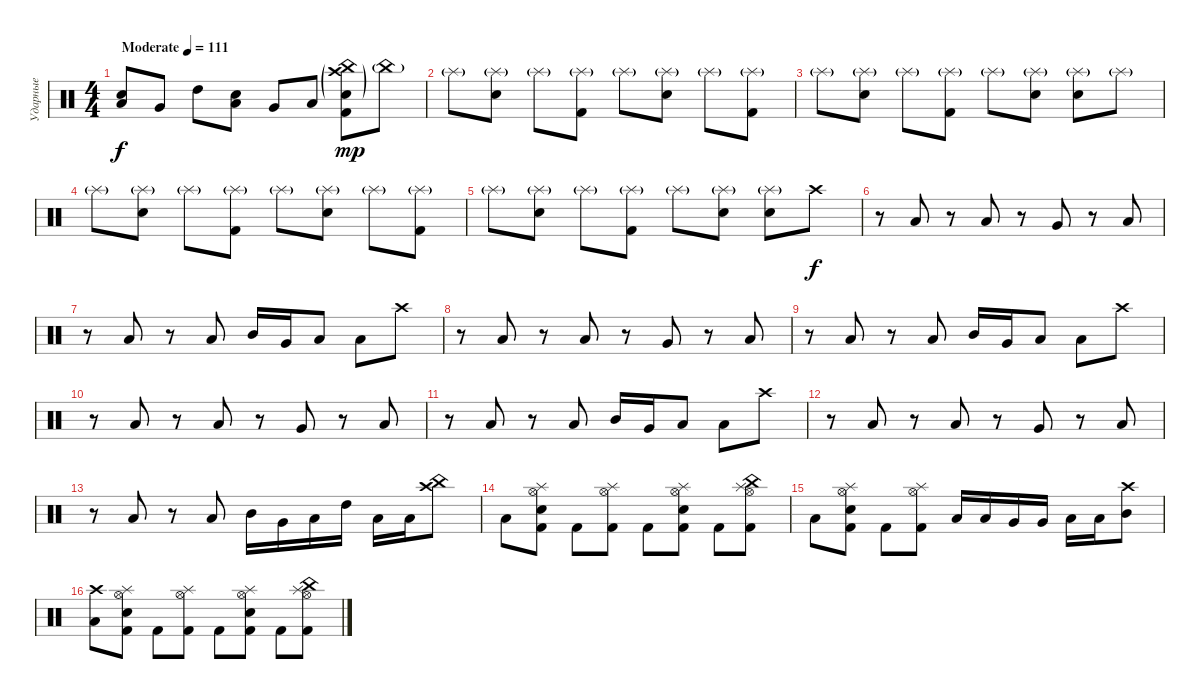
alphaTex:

\track ("Ударные" "Ударные") {instrument percussion}
\staff {score}
\articulation defaults
\ts (4 4)
\tempo (111 "Moderate")
\clef neutral
\ks c
("Low Floor Tom (hit)" "Electric Snare (hit)").8{dy f} "Very Low Tom (hit)".8 "High Tom (hit)".8 ("Low Floor Tom (hit)" "Electric Snare (hit)").8 "Very Low Tom (hit)".8 "Low Floor Tom (hit)".8 ("Kick (hit) 2" "China (hit)"{g} "Crash high (hit)"{g} "Electric Snare (hit)"{g}).8{dy mp} "China (hit)"{g}.8 |
"Splash (hit)"{g}.8 ("Electric Snare (hit)" "Splash (hit)"{g}).8 "Splash (hit)"{g}.8 ("Splash (hit)"{g} "Kick (hit) 2").8 "Splash (hit)"{g}.8 ("Electric Snare (hit)" "Splash (hit)"{g}).8 "Splash (hit)"{g}.8 ("Splash (hit)"{g} "Kick (hit) 2").8 |
"Splash (hit)"{g}.8 ("Electric Snare (hit)" "Splash (hit)"{g}).8 "Splash (hit)"{g}.8 ("Splash (hit)"{g} "Kick (hit) 2").8 "Splash (hit)"{g}.8 ("Electric Snare (hit)" "Splash (hit)"{g}).8 ("Snare (hit) 2" "Splash (hit)"{g}).8 "Splash (hit)"{g}.8 |
"Splash (hit)"{g}.8 ("Electric Snare (hit)" "Splash (hit)"{g}).8 "Splash (hit)"{g}.8 ("Splash (hit)"{g} "Kick (hit) 2").8 "Splash (hit)"{g}.8 ("Electric Snare (hit)" "Splash (hit)"{g}).8 "Splash (hit)"{g}.8 ("Splash (hit)"{g} "Kick (hit) 2").8 |
"Splash (hit)"{g}.8 ("Electric Snare (hit)" "Splash (hit)"{g}).8 "Splash (hit)"{g}.8 ("Splash (hit)"{g} "Kick (hit) 2").8 "Splash (hit)"{g}.8 ("Electric Snare (hit)" "Splash (hit)"{g}).8 ("Snare (hit) 2" "Splash (hit)"{g}).8 "Crash high (hit)".8{dy f} |
r.8 "Low Floor Tom (hit)".8 r.8 "Low Tom (hit)".8 r.8 "Very Low Tom (hit)".8 r.8 "Low Tom (hit)".8 |
r.8 "Low Floor Tom (hit)".8 r.8 "Low Tom (hit)".8 "Mid Tom (hit)".16 "Very Low Tom (hit)".16 "Low Floor Tom (hit)".8 "Low Tom (hit)".8 "Crash high (hit)".8 |
r.8 "Low Floor Tom (hit)".8 r.8 "Low Tom (hit)".8 r.8 "Very Low Tom (hit)".8 r.8 "Low Tom (hit)".8 |
r.8 "Low Floor Tom (hit)".8 r.8 "Low Tom (hit)".8 "Mid Tom (hit)".16 "Very Low Tom (hit)".16 "Low Floor Tom (hit)".8 "Low Tom (hit)".8 "Crash high (hit)".8 |
r.8 "Low Floor Tom (hit)".8 r.8 "Low Tom (hit)".8 r.8 "Very Low Tom (hit)".8 r.8 "Low Tom (hit)".8 |
r.8 "Low Floor Tom (hit)".8 r.8 "Low Tom (hit)".8 "Mid Tom (hit)".16 "Very Low Tom (hit)".16 "Low Floor Tom (hit)".8 "Low Tom (hit)".8 "Crash high (hit)".8 |
r.8 "Low Floor Tom (hit)".8 r.8 "Low Tom (hit)".8 r.8 "Very Low Tom (hit)".8 r.8 "Low Tom (hit)".8 |
r.8 "Low Floor Tom (hit)".8 r.8 "Low Tom (hit)".8 "Mid Tom (hit)".16 "Very Low Tom (hit)".16 "Low Floor Tom (hit)".16 "High Tom (hit)".16 "Low Tom (hit)".16 "Low Floor Tom (hit)".16 ("Crash high (hit)" "China (hit)").8 |
"Low Tom (hit)".8 ("Kick (hit) 2" "Electric Snare (hit)" "Hi-Hat (open)" "Splash (hit)").8 "Kick (hit) 2".8 ("Kick (hit) 2" "Hi-Hat (open)" "Splash (hit)").8 "Kick (hit) 2".8 ("Kick (hit) 2" "Electric Snare (hit)" "Hi-Hat (open)" "Splash (hit)").8 "Kick (hit) 2".8 ("Kick (hit) 2" "China (hit)" "Hi-Hat (open)" "Splash (hit)").8 |
"Low Tom (hit)".8 ("Kick (hit) 2" "Electric Snare (hit)" "Hi-Hat (open)" "Splash (hit)").8 "Kick (hit) 2".8 ("Kick (hit) 2" "Hi-Hat (open)" "Splash (hit)").8 "Low Tom (hit)".16 "Low Tom (hit)".16 "Very Low Tom (hit)".16 "Very Low Tom (hit)".16 "Low Floor Tom (hit)".16 "Low Floor Tom (hit)".16 ("Mid Tom (hit)" "Crash high (hit)").8 |
("Low Tom (hit)" "Crash high (hit)").8 ("Kick (hit) 2" "Electric Snare (hit)" "Hi-Hat (open)" "Splash (hit)").8 "Kick (hit) 2".8 ("Kick (hit) 2" "Hi-Hat (open)" "Splash (hit)").8 "Kick (hit) 2".8 ("Kick (hit) 2" "Electric Snare (hit)" "Hi-Hat (open)" "Splash (hit)").8 "Kick (hit) 2".8 ("Kick (hit) 2" "China (hit)" "Hi-Hat (open)" "Splash (hit)").8
